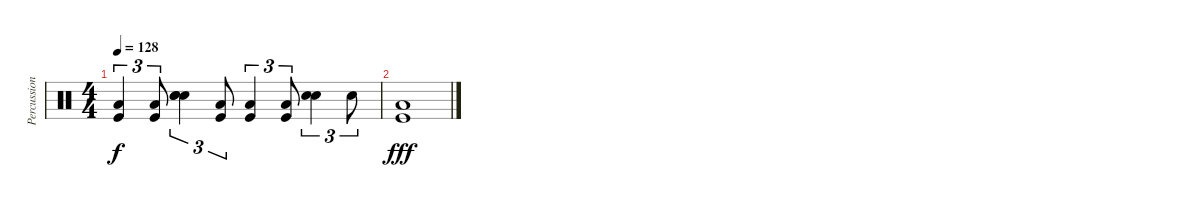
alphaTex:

\track ("Percussion" "Percussion") {instrument percussion}
\staff {score}
\articulation defaults
\ts (4 4)
\tempo 128
\clef neutral
\ks c
("Low Floor Tom (hit)" "Kick (hit)").4{tu (3 2) dy f} ("Low Floor Tom (hit)" "Kick (hit)").8{tu (3 2)} ("Hand Clap (hit)" "Electric Snare (hit)" "Snare (hit) 2").4{tu (3 2)} ("Low Floor Tom (hit)" "Kick (hit)").8{tu (3 2)} ("Low Floor Tom (hit)" "Kick (hit)").4{tu (3 2)} ("Low Floor Tom (hit)" "Kick (hit)").8{tu (3 2)} ("Hand Clap (hit)" "Electric Snare (hit)").4{tu (3 2)} "Hand Clap (hit)".8{tu (3 2)} |
("Low Floor Tom (hit)" "Kick (hit)").1{dy fff}
